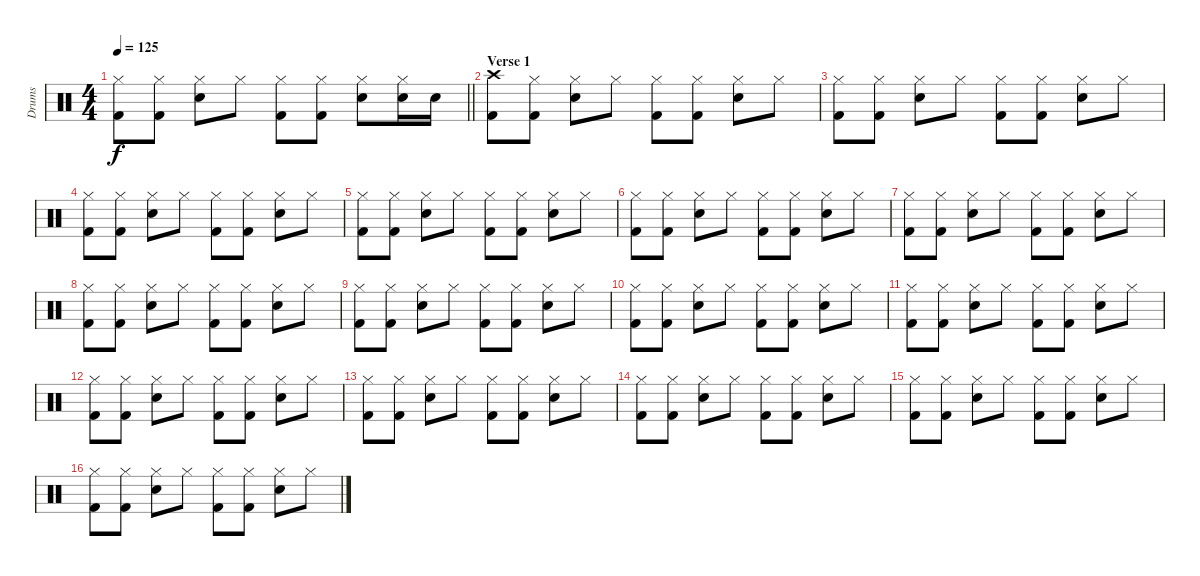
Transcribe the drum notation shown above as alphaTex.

\track ("Drums" "Drums") {instrument percussion}
\staff {score}
\articulation defaults
\ts (4 4)
\tempo 125
\clef neutral
\barLineRight lightlight
\ks c
("Hi-Hat (closed)" "Kick (hit) 2").8{dy f} ("Hi-Hat (closed)" "Kick (hit) 2").8 ("Hi-Hat (closed)" "Electric Snare (hit)").8 "Hi-Hat (closed)".8 ("Hi-Hat (closed)" "Kick (hit) 2").8 ("Hi-Hat (closed)" "Kick (hit) 2").8 ("Hi-Hat (closed)" "Electric Snare (hit)").8 ("Hi-Hat (closed)" "Electric Snare (hit)").16 "Electric Snare (hit)".16 |
\section ("" "Verse 1")
("Crash high (hit)" "Kick (hit) 2").8 ("Hi-Hat (closed)" "Kick (hit) 2").8 ("Hi-Hat (closed)" "Electric Snare (hit)").8 "Hi-Hat (closed)".8 ("Hi-Hat (closed)" "Kick (hit) 2").8 ("Hi-Hat (closed)" "Kick (hit) 2").8 ("Hi-Hat (closed)" "Electric Snare (hit)").8 "Hi-Hat (closed)".8 |
("Hi-Hat (closed)" "Kick (hit) 2").8 ("Hi-Hat (closed)" "Kick (hit) 2").8 ("Hi-Hat (closed)" "Electric Snare (hit)").8 "Hi-Hat (closed)".8 ("Hi-Hat (closed)" "Kick (hit) 2").8 ("Hi-Hat (closed)" "Kick (hit) 2").8 ("Hi-Hat (closed)" "Electric Snare (hit)").8 "Hi-Hat (closed)".8 |
("Hi-Hat (closed)" "Kick (hit) 2").8 ("Hi-Hat (closed)" "Kick (hit) 2").8 ("Hi-Hat (closed)" "Electric Snare (hit)").8 "Hi-Hat (closed)".8 ("Hi-Hat (closed)" "Kick (hit) 2").8 ("Hi-Hat (closed)" "Kick (hit) 2").8 ("Hi-Hat (closed)" "Electric Snare (hit)").8 "Hi-Hat (closed)".8 |
("Hi-Hat (closed)" "Kick (hit) 2").8 ("Hi-Hat (closed)" "Kick (hit) 2").8 ("Hi-Hat (closed)" "Electric Snare (hit)").8 "Hi-Hat (closed)".8 ("Hi-Hat (closed)" "Kick (hit) 2").8 ("Hi-Hat (closed)" "Kick (hit) 2").8 ("Hi-Hat (closed)" "Electric Snare (hit)").8 "Hi-Hat (closed)".8 |
("Hi-Hat (closed)" "Kick (hit) 2").8 ("Hi-Hat (closed)" "Kick (hit) 2").8 ("Hi-Hat (closed)" "Electric Snare (hit)").8 "Hi-Hat (closed)".8 ("Hi-Hat (closed)" "Kick (hit) 2").8 ("Hi-Hat (closed)" "Kick (hit) 2").8 ("Hi-Hat (closed)" "Electric Snare (hit)").8 "Hi-Hat (closed)".8 |
("Hi-Hat (closed)" "Kick (hit) 2").8 ("Hi-Hat (closed)" "Kick (hit) 2").8 ("Hi-Hat (closed)" "Electric Snare (hit)").8 "Hi-Hat (closed)".8 ("Hi-Hat (closed)" "Kick (hit) 2").8 ("Hi-Hat (closed)" "Kick (hit) 2").8 ("Hi-Hat (closed)" "Electric Snare (hit)").8 "Hi-Hat (closed)".8 |
("Hi-Hat (closed)" "Kick (hit) 2").8 ("Hi-Hat (closed)" "Kick (hit) 2").8 ("Hi-Hat (closed)" "Electric Snare (hit)").8 "Hi-Hat (closed)".8 ("Hi-Hat (closed)" "Kick (hit) 2").8 ("Hi-Hat (closed)" "Kick (hit) 2").8 ("Hi-Hat (closed)" "Electric Snare (hit)").8 "Hi-Hat (closed)".8 |
("Hi-Hat (closed)" "Kick (hit) 2").8 ("Hi-Hat (closed)" "Kick (hit) 2").8 ("Hi-Hat (closed)" "Electric Snare (hit)").8 "Hi-Hat (closed)".8 ("Hi-Hat (closed)" "Kick (hit) 2").8 ("Hi-Hat (closed)" "Kick (hit) 2").8 ("Hi-Hat (closed)" "Electric Snare (hit)").8 "Hi-Hat (closed)".8 |
("Hi-Hat (closed)" "Kick (hit) 2").8 ("Hi-Hat (closed)" "Kick (hit) 2").8 ("Hi-Hat (closed)" "Electric Snare (hit)").8 "Hi-Hat (closed)".8 ("Hi-Hat (closed)" "Kick (hit) 2").8 ("Hi-Hat (closed)" "Kick (hit) 2").8 ("Hi-Hat (closed)" "Electric Snare (hit)").8 "Hi-Hat (closed)".8 |
("Hi-Hat (closed)" "Kick (hit) 2").8 ("Hi-Hat (closed)" "Kick (hit) 2").8 ("Hi-Hat (closed)" "Electric Snare (hit)").8 "Hi-Hat (closed)".8 ("Hi-Hat (closed)" "Kick (hit) 2").8 ("Hi-Hat (closed)" "Kick (hit) 2").8 ("Hi-Hat (closed)" "Electric Snare (hit)").8 "Hi-Hat (closed)".8 |
("Hi-Hat (closed)" "Kick (hit) 2").8 ("Hi-Hat (closed)" "Kick (hit) 2").8 ("Hi-Hat (closed)" "Electric Snare (hit)").8 "Hi-Hat (closed)".8 ("Hi-Hat (closed)" "Kick (hit) 2").8 ("Hi-Hat (closed)" "Kick (hit) 2").8 ("Hi-Hat (closed)" "Electric Snare (hit)").8 "Hi-Hat (closed)".8 |
("Hi-Hat (closed)" "Kick (hit) 2").8 ("Hi-Hat (closed)" "Kick (hit) 2").8 ("Hi-Hat (closed)" "Electric Snare (hit)").8 "Hi-Hat (closed)".8 ("Hi-Hat (closed)" "Kick (hit) 2").8 ("Hi-Hat (closed)" "Kick (hit) 2").8 ("Hi-Hat (closed)" "Electric Snare (hit)").8 "Hi-Hat (closed)".8 |
("Hi-Hat (closed)" "Kick (hit) 2").8 ("Hi-Hat (closed)" "Kick (hit) 2").8 ("Hi-Hat (closed)" "Electric Snare (hit)").8 "Hi-Hat (closed)".8 ("Hi-Hat (closed)" "Kick (hit) 2").8 ("Hi-Hat (closed)" "Kick (hit) 2").8 ("Hi-Hat (closed)" "Electric Snare (hit)").8 "Hi-Hat (closed)".8 |
("Hi-Hat (closed)" "Kick (hit) 2").8 ("Hi-Hat (closed)" "Kick (hit) 2").8 ("Hi-Hat (closed)" "Electric Snare (hit)").8 "Hi-Hat (closed)".8 ("Hi-Hat (closed)" "Kick (hit) 2").8 ("Hi-Hat (closed)" "Kick (hit) 2").8 ("Hi-Hat (closed)" "Electric Snare (hit)").8 "Hi-Hat (closed)".8 |
("Hi-Hat (closed)" "Kick (hit) 2").8 ("Hi-Hat (closed)" "Kick (hit) 2").8 ("Hi-Hat (closed)" "Electric Snare (hit)").8 "Hi-Hat (closed)".8 ("Hi-Hat (closed)" "Kick (hit) 2").8 ("Hi-Hat (closed)" "Kick (hit) 2").8 ("Hi-Hat (closed)" "Electric Snare (hit)").8 "Hi-Hat (closed)".8
